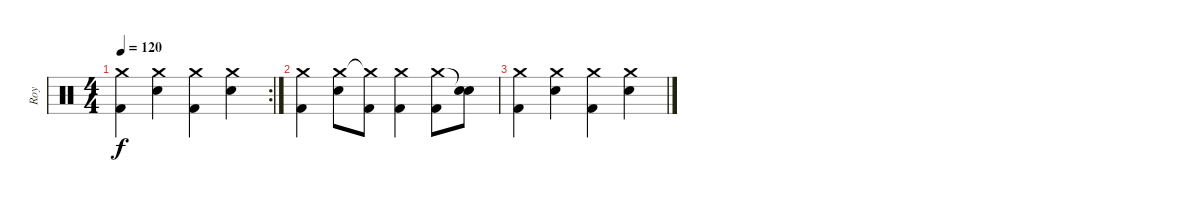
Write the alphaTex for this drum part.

\track ("Roy" "Roy") {instrument percussion}
\staff {score}
\articulation defaults
\rc 2
\ts (4 4)
\tempo 120
\clef neutral
\ks c
("Crash medium (hit)" "Kick (hit) 2").4{dy f} ("Crash medium (hit)" "Snare (hit) 2").4 ("Crash medium (hit)" "Kick (hit) 2").4 ("Crash medium (hit)" "Snare (hit) 2").4 |
("Crash medium (hit)" "Kick (hit) 2").4 ("Crash medium (hit)" "Snare (hit) 2").8 ("Crash medium (hit)"{t} "Kick (hit) 2").8 ("Crash medium (hit)" "Kick (hit) 2").4 ("Crash medium (hit)" "Kick (hit) 2").8 ("Snare (hit)"{t} "Snare (hit) 2").8 |
("Crash medium (hit)" "Kick (hit) 2").4 ("Crash medium (hit)" "Snare (hit) 2").4 ("Crash medium (hit)" "Kick (hit) 2").4 ("Crash medium (hit)" "Snare (hit) 2").4
